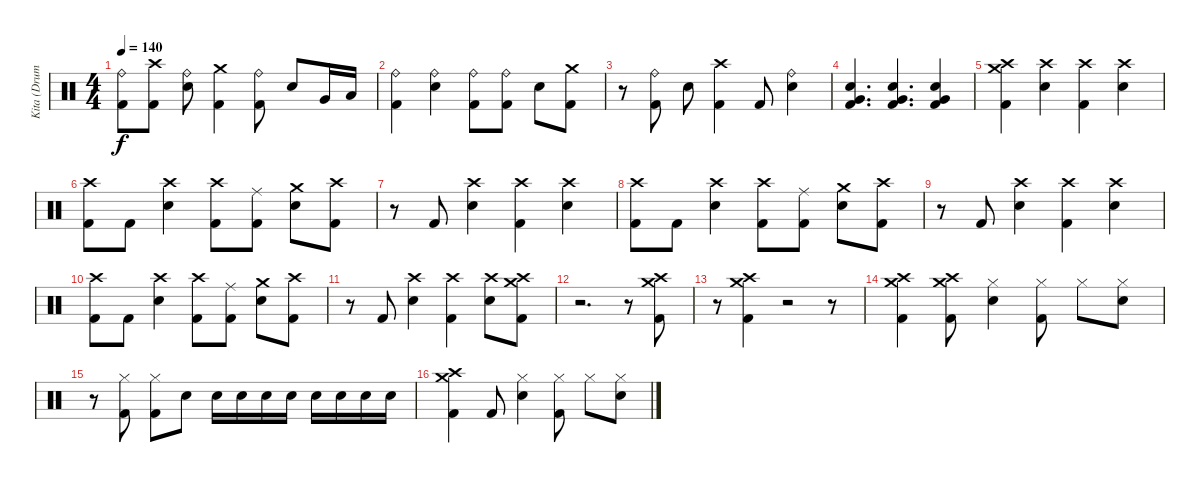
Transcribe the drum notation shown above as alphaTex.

\track ("Kita (Drums)" "Kita (Drum") {instrument percussion}
\staff {score}
\articulation defaults
\ts (4 4)
\tempo 140
\clef neutral
\ks c
("Ride (bell)" "Kick (hit) 2").8{dy f} ("Crash high (hit)" "Kick (hit) 2").8 ("Ride (bell)" "Electric Snare (hit)").8 ("Crash medium (hit)" "Kick (hit) 2").4 ("Ride (bell)" "Kick (hit) 2").8 "Electric Snare (hit)".8 "Very Low Tom (hit)".16 "Low Floor Tom (hit)".16 |
("Ride (bell)" "Kick (hit) 2").4 ("Ride (bell)" "Electric Snare (hit)").4 ("Ride (bell)" "Kick (hit) 2").8 ("Ride (bell)" "Kick (hit) 2").8 "Electric Snare (hit)".8 ("Crash medium (hit)" "Kick (hit) 2").8 |
r.8 ("Ride (bell)" "Kick (hit) 2").8 "Electric Snare (hit)".8 ("Crash high (hit)" "Kick (hit) 2").4 "Kick (hit) 2".8 ("Ride (bell)" "Electric Snare (hit)").4 |
("Very Low Tom (hit)" "Electric Snare (hit)" "Kick (hit) 2").4{d} ("Very Low Tom (hit)" "Electric Snare (hit)" "Kick (hit) 2").4{d} ("Very Low Tom (hit)" "Electric Snare (hit)" "Kick (hit) 2").4 |
("Crash medium (hit)" "Crash high (hit)" "Kick (hit) 2").4 ("Crash high (hit)" "Electric Snare (hit)").4 ("Crash high (hit)" "Kick (hit) 2").4 ("Crash high (hit)" "Electric Snare (hit)").4 |
("Crash high (hit)" "Kick (hit) 2").8 "Kick (hit) 2".8 ("Crash high (hit)" "Electric Snare (hit)").4 ("Crash high (hit)" "Kick (hit) 2").8 ("Ride (middle)" "Kick (hit) 2").8 ("Crash medium (hit)" "Electric Snare (hit)").8 ("Crash high (hit)" "Kick (hit) 2").8 |
r.8 "Kick (hit) 2".8 ("Crash high (hit)" "Electric Snare (hit)").4 ("Crash high (hit)" "Kick (hit) 2").4 ("Crash high (hit)" "Electric Snare (hit)").4 |
("Crash high (hit)" "Kick (hit) 2").8 "Kick (hit) 2".8 ("Crash high (hit)" "Electric Snare (hit)").4 ("Crash high (hit)" "Kick (hit) 2").8 ("Ride (middle)" "Kick (hit) 2").8 ("Crash medium (hit)" "Electric Snare (hit)").8 ("Crash high (hit)" "Kick (hit) 2").8 |
r.8 "Kick (hit) 2".8 ("Crash high (hit)" "Electric Snare (hit)").4 ("Crash high (hit)" "Kick (hit) 2").4 ("Crash high (hit)" "Electric Snare (hit)").4 |
("Crash high (hit)" "Kick (hit) 2").8 "Kick (hit) 2".8 ("Crash high (hit)" "Electric Snare (hit)").4 ("Crash high (hit)" "Kick (hit) 2").8 ("Ride (middle)" "Kick (hit) 2").8 ("Crash medium (hit)" "Electric Snare (hit)").8 ("Crash high (hit)" "Kick (hit) 2").8 |
r.8 "Kick (hit) 2".8 ("Crash high (hit)" "Electric Snare (hit)").4 ("Crash high (hit)" "Kick (hit) 2").4 ("Crash high (hit)" "Electric Snare (hit)").8 ("Crash medium (hit)" "Crash high (hit)" "Kick (hit) 2").8 |
r.2{d} r.8 ("Crash medium (hit)" "Crash high (hit)" "Kick (hit) 2").8 |
r.8 ("Crash medium (hit)" "Crash high (hit)" "Kick (hit) 2").4 r.2 r.8 |
("Crash medium (hit)" "Crash high (hit)" "Kick (hit) 2").4 ("Crash medium (hit)" "Crash high (hit)" "Kick (hit) 2").8 ("Hi-Hat (closed)" "Electric Snare (hit)").4 ("Hi-Hat (closed)" "Kick (hit) 2").8 "Hi-Hat (closed)".8 ("Hi-Hat (closed)" "Electric Snare (hit)").8 |
r.8 ("Hi-Hat (closed)" "Kick (hit) 2").8 ("Hi-Hat (closed)" "Kick (hit) 2").8 "Electric Snare (hit)".8 "Electric Snare (hit)".16 "Electric Snare (hit)".16 "Electric Snare (hit)".16 "Electric Snare (hit)".16 "Electric Snare (hit)".16 "Electric Snare (hit)".16 "Electric Snare (hit)".16 "Electric Snare (hit)".16 |
("Crash medium (hit)" "Crash high (hit)" "Kick (hit) 2").4 "Kick (hit) 2".8 ("Hi-Hat (closed)" "Electric Snare (hit)").4 ("Hi-Hat (closed)" "Kick (hit) 2").8 "Hi-Hat (closed)".8 ("Hi-Hat (closed)" "Electric Snare (hit)").8
